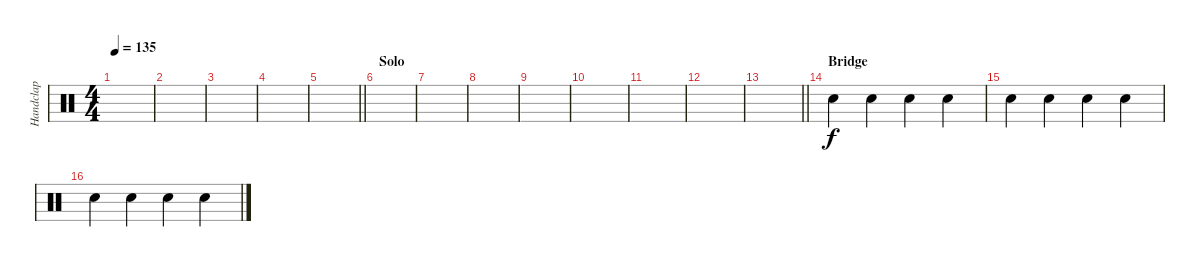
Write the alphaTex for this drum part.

\track ("Handclap" "Handclap") {instrument percussion}
\staff {score}
\articulation defaults
\ts (4 4)
\tempo 135
\clef neutral
\ks c
|
|
|
|
\barLineRight lightlight
|
\section ("" "Solo")
|
|
|
|
|
|
|
\barLineRight lightlight
|
\section ("" "Bridge")
"Hand Clap (hit)".4 "Hand Clap (hit)".4 "Hand Clap (hit)".4 "Hand Clap (hit)".4 |
"Hand Clap (hit)".4 "Hand Clap (hit)".4 "Hand Clap (hit)".4 "Hand Clap (hit)".4 |
"Hand Clap (hit)".4 "Hand Clap (hit)".4 "Hand Clap (hit)".4 "Hand Clap (hit)".4
